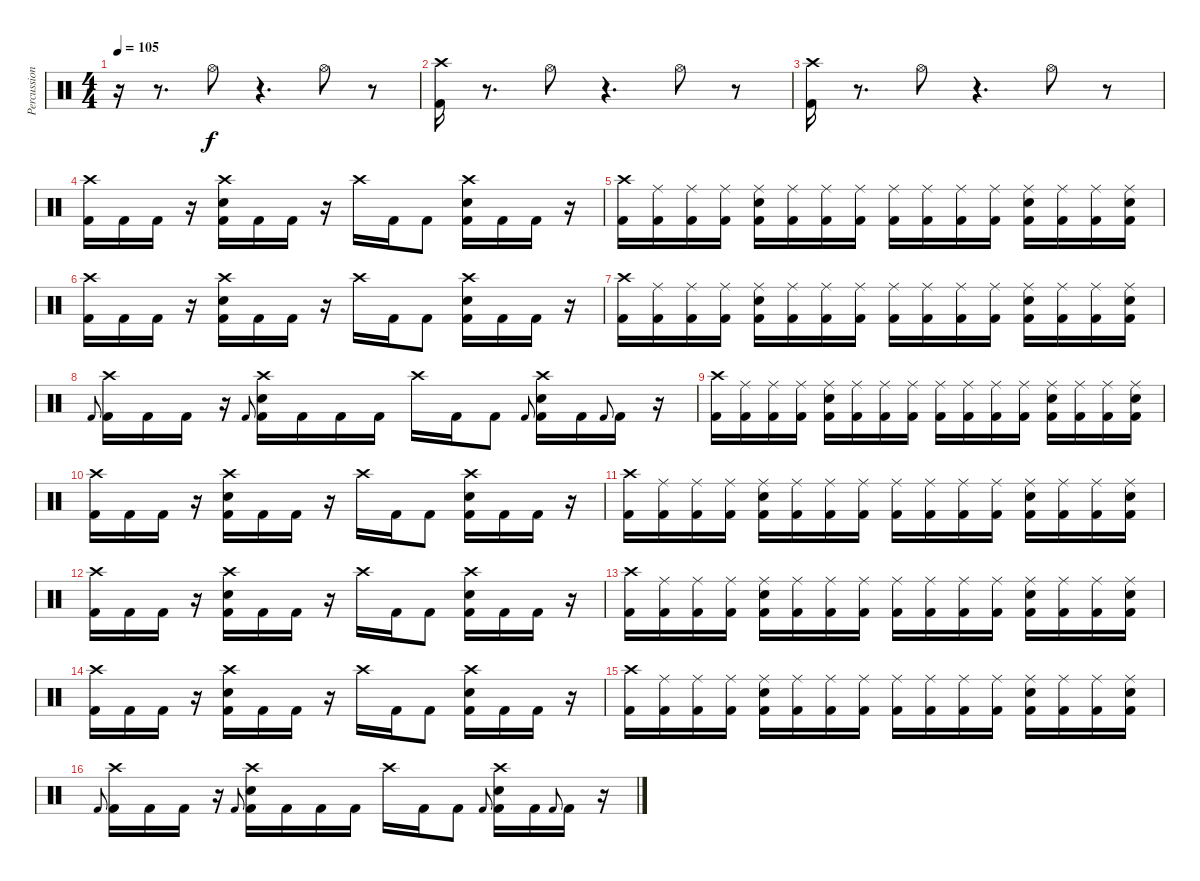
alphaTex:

\track ("Percussion" "Percussion") {instrument percussion}
\staff {score}
\articulation defaults
\ts (4 4)
\tempo 105
\clef neutral
\ks c
r.16{dy f} r.8{d} "Hi-Hat (open)".8 r.4{d} "Hi-Hat (open)".8 r.8 |
("Crash high (hit)" "Kick (hit) 2").16 r.8{d} "Hi-Hat (open)".8 r.4{d} "Hi-Hat (open)".8 r.8 |
("Crash high (hit)" "Kick (hit) 2").16 r.8{d} "Hi-Hat (open)".8 r.4{d} "Hi-Hat (open)".8 r.8 |
("Crash high (hit)" "Kick (hit) 2").16 "Kick (hit) 2".16 "Kick (hit) 2".16 r.16 ("Crash high (hit)" "Snare (hit) 2" "Kick (hit) 2").16 "Kick (hit) 2".16 "Kick (hit) 2".16 r.16 "Crash high (hit)".16 "Kick (hit) 2".16 "Kick (hit) 2".8 ("Crash high (hit)" "Snare (hit) 2" "Kick (hit) 2").16 "Kick (hit) 2".16 "Kick (hit) 2".16 r.16 |
("Crash high (hit)" "Kick (hit) 2").16 ("Ride (middle)" "Kick (hit) 2").16 ("Ride (middle)" "Kick (hit) 2").16 ("Ride (middle)" "Kick (hit) 2").16 ("Ride (middle)" "Snare (hit) 2" "Kick (hit) 2").16 ("Ride (middle)" "Kick (hit) 2").16 ("Ride (middle)" "Kick (hit) 2").16 ("Ride (middle)" "Kick (hit) 2").16 ("Ride (middle)" "Kick (hit) 2").16 ("Ride (middle)" "Kick (hit) 2").16 ("Ride (middle)" "Kick (hit) 2").16 ("Ride (middle)" "Kick (hit) 2").16 ("Ride (middle)" "Snare (hit) 2" "Kick (hit) 2").16 ("Ride (middle)" "Kick (hit) 2").16 ("Ride (middle)" "Kick (hit) 2").16 ("Ride (middle)" "Snare (hit) 2" "Kick (hit) 2").16 |
("Crash high (hit)" "Kick (hit) 2").16 "Kick (hit) 2".16 "Kick (hit) 2".16 r.16 ("Crash high (hit)" "Snare (hit) 2" "Kick (hit) 2").16 "Kick (hit) 2".16 "Kick (hit) 2".16 r.16 "Crash high (hit)".16 "Kick (hit) 2".16 "Kick (hit) 2".8 ("Crash high (hit)" "Snare (hit) 2" "Kick (hit) 2").16 "Kick (hit) 2".16 "Kick (hit) 2".16 r.16 |
("Crash high (hit)" "Kick (hit) 2").16 ("Ride (middle)" "Kick (hit) 2").16 ("Ride (middle)" "Kick (hit) 2").16 ("Ride (middle)" "Kick (hit) 2").16 ("Ride (middle)" "Snare (hit) 2" "Kick (hit) 2").16 ("Ride (middle)" "Kick (hit) 2").16 ("Ride (middle)" "Kick (hit) 2").16 ("Ride (middle)" "Kick (hit) 2").16 ("Ride (middle)" "Kick (hit) 2").16 ("Ride (middle)" "Kick (hit) 2").16 ("Ride (middle)" "Kick (hit) 2").16 ("Ride (middle)" "Kick (hit) 2").16 ("Ride (middle)" "Snare (hit) 2" "Kick (hit) 2").16 ("Ride (middle)" "Kick (hit) 2").16 ("Ride (middle)" "Kick (hit) 2").16 ("Ride (middle)" "Snare (hit) 2" "Kick (hit) 2").16 |
"Kick (hit) 2".8{gr onbeat} ("Crash high (hit)" "Kick (hit) 2").16 "Kick (hit) 2".16 "Kick (hit) 2".16 r.16 "Kick (hit) 2".8{gr onbeat} ("Crash high (hit)" "Snare (hit) 2" "Kick (hit) 2").16 "Kick (hit) 2".16 "Kick (hit) 2".16 "Kick (hit) 2".16 "Crash high (hit)".16 "Kick (hit) 2".16 "Kick (hit) 2".8 "Kick (hit) 2".8{gr onbeat} ("Crash high (hit)" "Snare (hit) 2" "Kick (hit) 2").16 "Kick (hit) 2".16 "Kick (hit) 2".8{gr onbeat} "Kick (hit) 2".16 r.16 |
("Crash high (hit)" "Kick (hit) 2").16 ("Ride (middle)" "Kick (hit) 2").16 ("Ride (middle)" "Kick (hit) 2").16 ("Ride (middle)" "Kick (hit) 2").16 ("Ride (middle)" "Snare (hit) 2" "Kick (hit) 2").16 ("Ride (middle)" "Kick (hit) 2").16 ("Ride (middle)" "Kick (hit) 2").16 ("Ride (middle)" "Kick (hit) 2").16 ("Ride (middle)" "Kick (hit) 2").16 ("Ride (middle)" "Kick (hit) 2").16 ("Ride (middle)" "Kick (hit) 2").16 ("Ride (middle)" "Kick (hit) 2").16 ("Ride (middle)" "Snare (hit) 2" "Kick (hit) 2").16 ("Ride (middle)" "Kick (hit) 2").16 ("Ride (middle)" "Kick (hit) 2").16 ("Ride (middle)" "Snare (hit) 2" "Kick (hit) 2").16 |
("Crash high (hit)" "Kick (hit) 2").16 "Kick (hit) 2".16 "Kick (hit) 2".16 r.16 ("Crash high (hit)" "Snare (hit) 2" "Kick (hit) 2").16 "Kick (hit) 2".16 "Kick (hit) 2".16 r.16 "Crash high (hit)".16 "Kick (hit) 2".16 "Kick (hit) 2".8 ("Crash high (hit)" "Snare (hit) 2" "Kick (hit) 2").16 "Kick (hit) 2".16 "Kick (hit) 2".16 r.16 |
("Crash high (hit)" "Kick (hit) 2").16 ("Ride (middle)" "Kick (hit) 2").16 ("Ride (middle)" "Kick (hit) 2").16 ("Ride (middle)" "Kick (hit) 2").16 ("Ride (middle)" "Snare (hit) 2" "Kick (hit) 2").16 ("Ride (middle)" "Kick (hit) 2").16 ("Ride (middle)" "Kick (hit) 2").16 ("Ride (middle)" "Kick (hit) 2").16 ("Ride (middle)" "Kick (hit) 2").16 ("Ride (middle)" "Kick (hit) 2").16 ("Ride (middle)" "Kick (hit) 2").16 ("Ride (middle)" "Kick (hit) 2").16 ("Ride (middle)" "Snare (hit) 2" "Kick (hit) 2").16 ("Ride (middle)" "Kick (hit) 2").16 ("Ride (middle)" "Kick (hit) 2").16 ("Ride (middle)" "Snare (hit) 2" "Kick (hit) 2").16 |
("Crash high (hit)" "Kick (hit) 2").16 "Kick (hit) 2".16 "Kick (hit) 2".16 r.16 ("Crash high (hit)" "Snare (hit) 2" "Kick (hit) 2").16 "Kick (hit) 2".16 "Kick (hit) 2".16 r.16 "Crash high (hit)".16 "Kick (hit) 2".16 "Kick (hit) 2".8 ("Crash high (hit)" "Snare (hit) 2" "Kick (hit) 2").16 "Kick (hit) 2".16 "Kick (hit) 2".16 r.16 |
("Crash high (hit)" "Kick (hit) 2").16 ("Ride (middle)" "Kick (hit) 2").16 ("Ride (middle)" "Kick (hit) 2").16 ("Ride (middle)" "Kick (hit) 2").16 ("Ride (middle)" "Snare (hit) 2" "Kick (hit) 2").16 ("Ride (middle)" "Kick (hit) 2").16 ("Ride (middle)" "Kick (hit) 2").16 ("Ride (middle)" "Kick (hit) 2").16 ("Ride (middle)" "Kick (hit) 2").16 ("Ride (middle)" "Kick (hit) 2").16 ("Ride (middle)" "Kick (hit) 2").16 ("Ride (middle)" "Kick (hit) 2").16 ("Ride (middle)" "Snare (hit) 2" "Kick (hit) 2").16 ("Ride (middle)" "Kick (hit) 2").16 ("Ride (middle)" "Kick (hit) 2").16 ("Ride (middle)" "Snare (hit) 2" "Kick (hit) 2").16 |
("Crash high (hit)" "Kick (hit) 2").16 "Kick (hit) 2".16 "Kick (hit) 2".16 r.16 ("Crash high (hit)" "Snare (hit) 2" "Kick (hit) 2").16 "Kick (hit) 2".16 "Kick (hit) 2".16 r.16 "Crash high (hit)".16 "Kick (hit) 2".16 "Kick (hit) 2".8 ("Crash high (hit)" "Snare (hit) 2" "Kick (hit) 2").16 "Kick (hit) 2".16 "Kick (hit) 2".16 r.16 |
("Crash high (hit)" "Kick (hit) 2").16 ("Ride (middle)" "Kick (hit) 2").16 ("Ride (middle)" "Kick (hit) 2").16 ("Ride (middle)" "Kick (hit) 2").16 ("Ride (middle)" "Snare (hit) 2" "Kick (hit) 2").16 ("Ride (middle)" "Kick (hit) 2").16 ("Ride (middle)" "Kick (hit) 2").16 ("Ride (middle)" "Kick (hit) 2").16 ("Ride (middle)" "Kick (hit) 2").16 ("Ride (middle)" "Kick (hit) 2").16 ("Ride (middle)" "Kick (hit) 2").16 ("Ride (middle)" "Kick (hit) 2").16 ("Ride (middle)" "Snare (hit) 2" "Kick (hit) 2").16 ("Ride (middle)" "Kick (hit) 2").16 ("Ride (middle)" "Kick (hit) 2").16 ("Ride (middle)" "Snare (hit) 2" "Kick (hit) 2").16 |
"Kick (hit) 2".8{gr onbeat} ("Crash high (hit)" "Kick (hit) 2").16 "Kick (hit) 2".16 "Kick (hit) 2".16 r.16 "Kick (hit) 2".8{gr onbeat} ("Crash high (hit)" "Snare (hit) 2" "Kick (hit) 2").16 "Kick (hit) 2".16 "Kick (hit) 2".16 "Kick (hit) 2".16 "Crash high (hit)".16 "Kick (hit) 2".16 "Kick (hit) 2".8 "Kick (hit) 2".8{gr onbeat} ("Crash high (hit)" "Snare (hit) 2" "Kick (hit) 2").16 "Kick (hit) 2".16 "Kick (hit) 2".8{gr onbeat} "Kick (hit) 2".16 r.16
